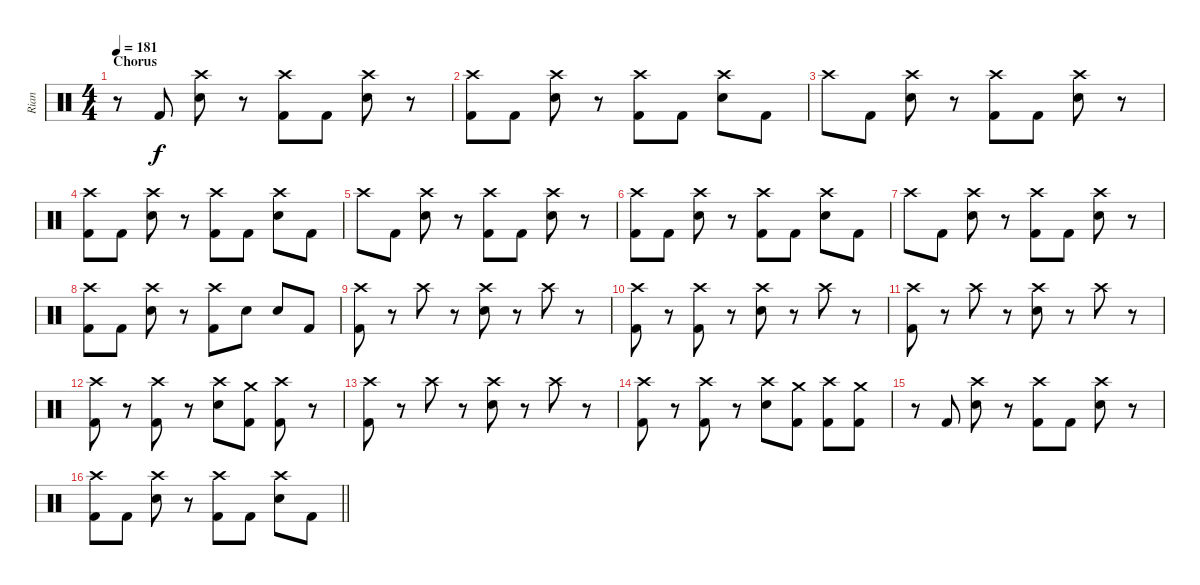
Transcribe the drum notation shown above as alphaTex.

\track ("Rian" "Rian") {instrument percussion bank 255}
\staff {score}
\articulation defaults
\ts (4 4)
\section ("" "Chorus")
\tempo 181
\clef neutral
\ks c
r.8{dy f} "Kick (hit) 2".8 ("Crash high (hit)" "Electric Snare (hit)").8 r.8 ("Crash high (hit)" "Kick (hit) 2").8 "Kick (hit) 2".8 ("Crash high (hit)" "Electric Snare (hit)").8 r.8 |
("Crash high (hit)" "Kick (hit) 2").8 "Kick (hit) 2".8 ("Crash high (hit)" "Electric Snare (hit)").8 r.8 ("Crash high (hit)" "Kick (hit) 2").8 "Kick (hit) 2".8 ("Crash high (hit)" "Electric Snare (hit)").8 "Kick (hit) 2".8 |
"Crash high (hit)".8 "Kick (hit) 2".8 ("Crash high (hit)" "Electric Snare (hit)").8 r.8 ("Crash high (hit)" "Kick (hit) 2").8 "Kick (hit) 2".8 ("Crash high (hit)" "Electric Snare (hit)").8 r.8 |
("Crash high (hit)" "Kick (hit) 2").8 "Kick (hit) 2".8 ("Crash high (hit)" "Electric Snare (hit)").8 r.8 ("Crash high (hit)" "Kick (hit) 2").8 "Kick (hit) 2".8 ("Crash high (hit)" "Electric Snare (hit)").8 "Kick (hit) 2".8 |
"Crash high (hit)".8 "Kick (hit) 2".8 ("Crash high (hit)" "Electric Snare (hit)").8 r.8 ("Crash high (hit)" "Kick (hit) 2").8 "Kick (hit) 2".8 ("Crash high (hit)" "Electric Snare (hit)").8 r.8 |
("Crash high (hit)" "Kick (hit) 2").8 "Kick (hit) 2".8 ("Crash high (hit)" "Electric Snare (hit)").8 r.8 ("Crash high (hit)" "Kick (hit) 2").8 "Kick (hit) 2".8 ("Crash high (hit)" "Electric Snare (hit)").8 "Kick (hit) 2".8 |
"Crash high (hit)".8 "Kick (hit) 2".8 ("Crash high (hit)" "Electric Snare (hit)").8 r.8 ("Crash high (hit)" "Kick (hit) 2").8 "Kick (hit) 2".8 ("Crash high (hit)" "Electric Snare (hit)").8 r.8 |
("Crash high (hit)" "Kick (hit) 2").8 "Kick (hit) 2".8 ("Crash high (hit)" "Electric Snare (hit)").8 r.8 ("Crash high (hit)" "Kick (hit) 2").8 "Electric Snare (hit)".8 "Electric Snare (hit)".8 "Kick (hit) 2".8 |
("Crash high (hit)" "Kick (hit) 2").8 r.8 "Crash high (hit)".8 r.8 ("Crash high (hit)" "Electric Snare (hit)").8 r.8 "Crash high (hit)".8 r.8 |
("Crash high (hit)" "Kick (hit) 2").8 r.8 ("Crash high (hit)" "Kick (hit) 2").8 r.8 ("Crash high (hit)" "Electric Snare (hit)").8 r.8 "Crash high (hit)".8 r.8 |
("Crash high (hit)" "Kick (hit) 2").8 r.8 "Crash high (hit)".8 r.8 ("Crash high (hit)" "Electric Snare (hit)").8 r.8 "Crash high (hit)".8 r.8 |
("Crash high (hit)" "Kick (hit) 2").8 r.8 ("Crash high (hit)" "Kick (hit) 2").8 r.8 ("Crash high (hit)" "Electric Snare (hit)").8 ("Crash medium (hit)" "Kick (hit) 2").8 ("Crash high (hit)" "Kick (hit) 2").8 r.8 |
("Crash high (hit)" "Kick (hit) 2").8 r.8 "Crash high (hit)".8 r.8 ("Crash high (hit)" "Electric Snare (hit)").8 r.8 "Crash high (hit)".8 r.8 |
("Crash high (hit)" "Kick (hit) 2").8 r.8 ("Crash high (hit)" "Kick (hit) 2").8 r.8 ("Crash high (hit)" "Electric Snare (hit)").8 ("Crash medium (hit)" "Kick (hit) 2").8 ("Crash high (hit)" "Kick (hit) 2").8 ("Crash medium (hit)" "Kick (hit) 2").8 |
r.8 "Kick (hit) 2".8 ("Crash high (hit)" "Electric Snare (hit)").8 r.8 ("Crash high (hit)" "Kick (hit) 2").8 "Kick (hit) 2".8 ("Crash high (hit)" "Electric Snare (hit)").8 r.8 |
\barLineRight lightlight
("Crash high (hit)" "Kick (hit) 2").8 "Kick (hit) 2".8 ("Crash high (hit)" "Electric Snare (hit)").8 r.8 ("Crash high (hit)" "Kick (hit) 2").8 "Kick (hit) 2".8 ("Crash high (hit)" "Electric Snare (hit)").8 "Kick (hit) 2".8
